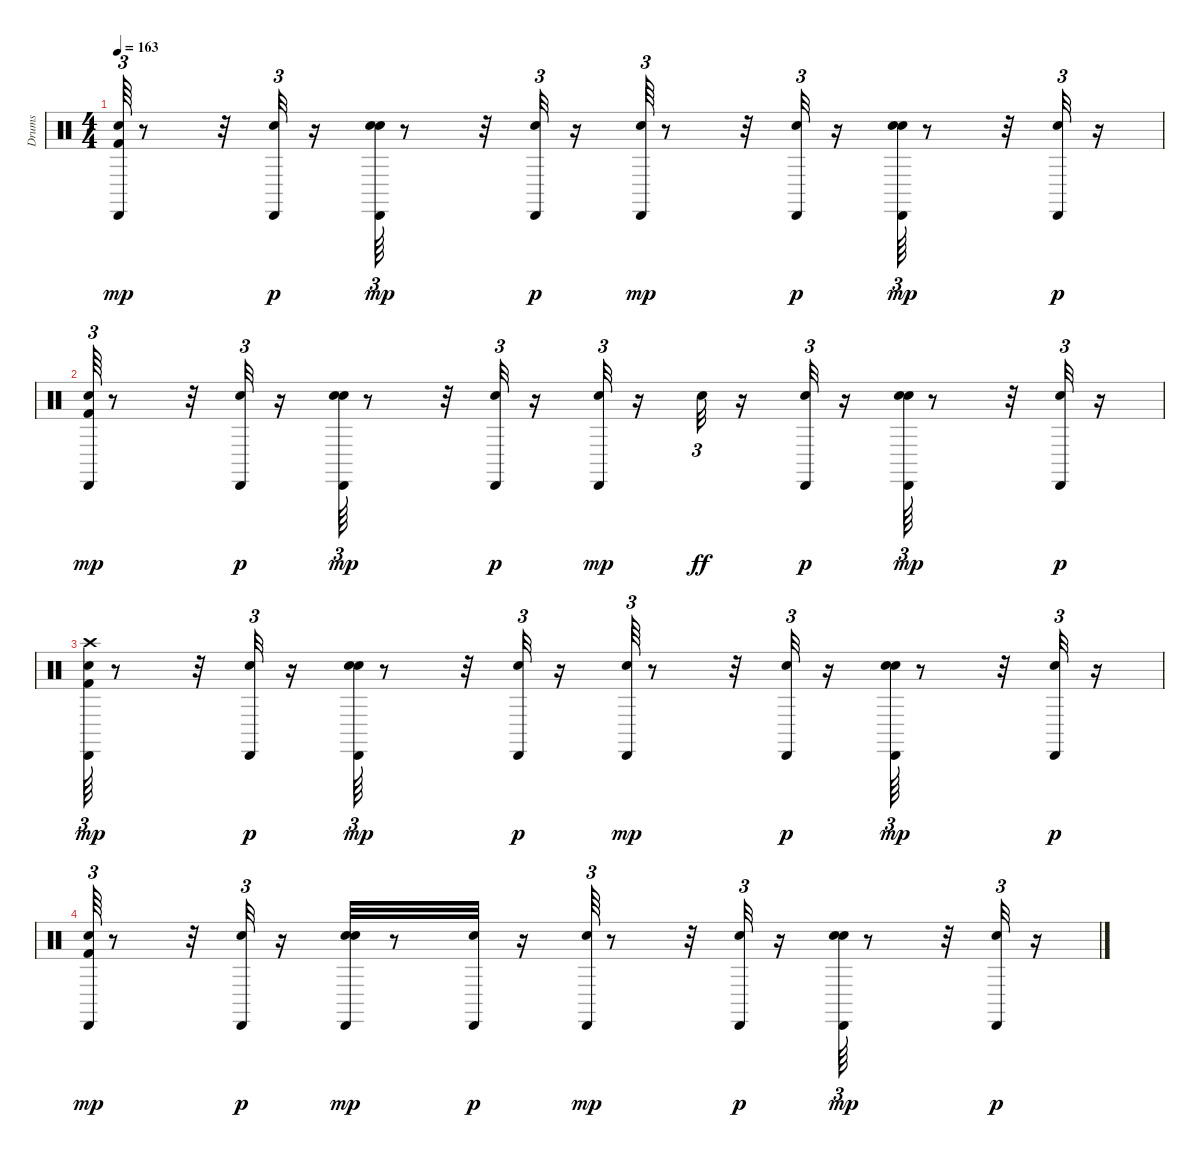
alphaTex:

\track ("Drums               " "Drums     ") {instrument percussion}
\staff {score}
\articulation defaults
\ts (4 4)
\tempo 163
\clef neutral
\ks c
("Kick (hit) 2" "Snare (hit) 2" "Cabasa (hit)").64{tu (3 2) dy mp} r.8 r.32 ("Snare (hit) 2" "Cabasa (hit)").32{tu (3 2) dy p} r.16 ("Snare (hit) 2" "Hand Clap (hit)" "Cabasa (hit)").64{tu (3 2) dy mp} r.8 r.32 ("Snare (hit) 2" "Cabasa (hit)").32{tu (3 2) dy p} r.16 ("Snare (hit) 2" "Cabasa (hit)").64{tu (3 2) dy mp} r.8 r.32 ("Snare (hit) 2" "Cabasa (hit)").32{tu (3 2) dy p} r.16 ("Snare (hit) 2" "Hand Clap (hit)" "Cabasa (hit)").64{tu (3 2) dy mp} r.8 r.32 ("Snare (hit) 2" "Cabasa (hit)").32{tu (3 2) dy p} r.16 |
("Kick (hit) 2" "Snare (hit) 2" "Cabasa (hit)").64{tu (3 2) dy mp} r.8 r.32 ("Snare (hit) 2" "Cabasa (hit)").32{tu (3 2) dy p} r.16 ("Snare (hit) 2" "Hand Clap (hit)" "Cabasa (hit)").64{tu (3 2) dy mp} r.8 r.32 ("Snare (hit) 2" "Cabasa (hit)").32{tu (3 2) dy p} r.16 ("Snare (hit) 2" "Cabasa (hit)").32{tu (3 2) dy mp} r.16 "Snare (hit) 2".32{tu (3 2) dy ff} r.16 ("Snare (hit) 2" "Cabasa (hit)").32{tu (3 2) dy p} r.16 ("Snare (hit) 2" "Hand Clap (hit)" "Cabasa (hit)").64{tu (3 2) dy mp} r.8 r.32 ("Snare (hit) 2" "Cabasa (hit)").32{tu (3 2) dy p} r.16 |
("Kick (hit) 2" "Snare (hit) 2" "Crash high (hit)" "Cabasa (hit)").64{tu (3 2) dy mp} r.8 r.32 ("Snare (hit) 2" "Cabasa (hit)").32{tu (3 2) dy p} r.16 ("Snare (hit) 2" "Hand Clap (hit)" "Cabasa (hit)").64{tu (3 2) dy mp} r.8 r.32 ("Snare (hit) 2" "Cabasa (hit)").32{tu (3 2) dy p} r.16 ("Snare (hit) 2" "Cabasa (hit)").64{tu (3 2) dy mp} r.8 r.32 ("Snare (hit) 2" "Cabasa (hit)").32{tu (3 2) dy p} r.16 ("Snare (hit) 2" "Hand Clap (hit)" "Cabasa (hit)").64{tu (3 2) dy mp} r.8 r.32 ("Snare (hit) 2" "Cabasa (hit)").32{tu (3 2) dy p} r.16 |
("Kick (hit) 2" "Snare (hit) 2" "Cabasa (hit)").64{tu (3 2) dy mp} r.8 r.32 ("Snare (hit) 2" "Cabasa (hit)").32{tu (3 2) dy p} r.16 ("Snare (hit) 2" "Hand Clap (hit)" "Cabasa (hit)").32{dy mp} r.8 ("Snare (hit) 2" "Cabasa (hit)").32{dy p} r.16 ("Snare (hit) 2" "Cabasa (hit)").64{tu (3 2) dy mp} r.8 r.32 ("Snare (hit) 2" "Cabasa (hit)").32{tu (3 2) dy p} r.16 ("Snare (hit) 2" "Hand Clap (hit)" "Cabasa (hit)").64{tu (3 2) dy mp} r.8 r.32 ("Snare (hit) 2" "Cabasa (hit)").32{tu (3 2) dy p} r.16
